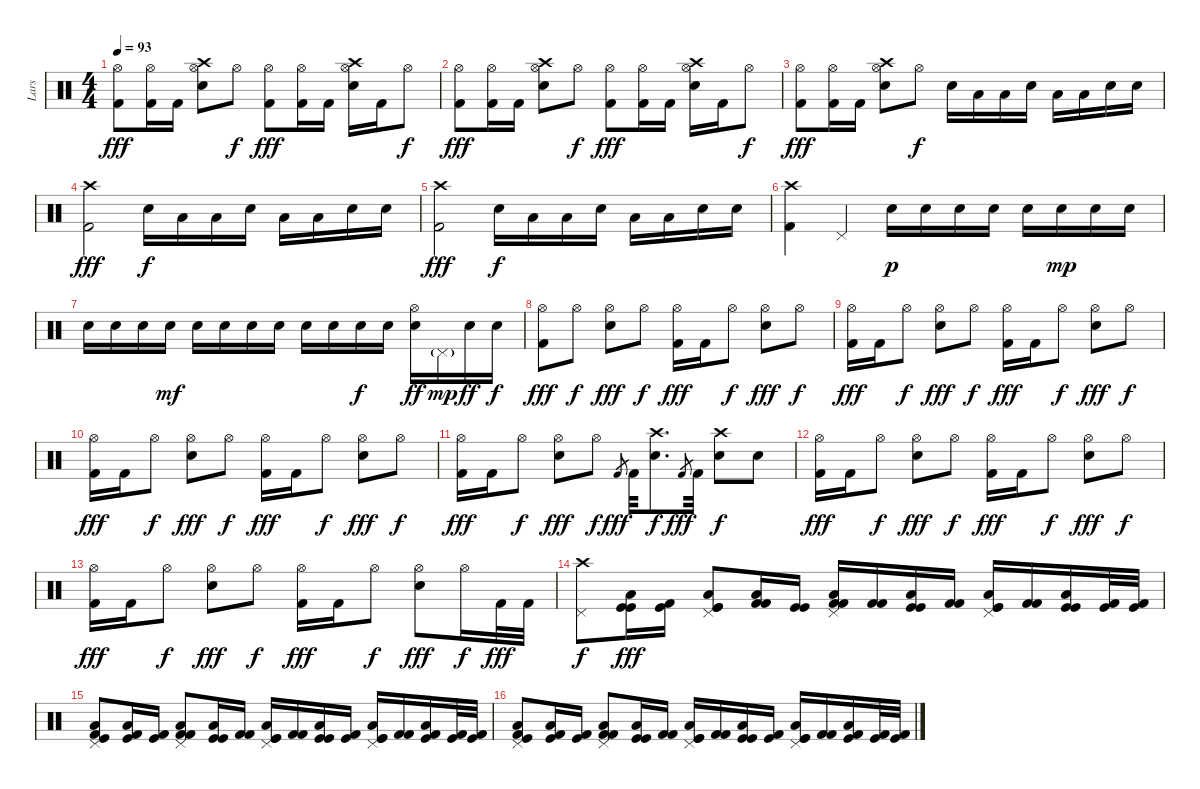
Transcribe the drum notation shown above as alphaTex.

\track ("Lars" "Lars") {instrument percussion}
\staff {score}
\articulation defaults
\ts (4 4)
\tempo 93
\clef neutral
\ks c
("Hi-Hat (open)" "Kick (hit) 2").8{dy fff} ("Hi-Hat (open)" "Kick (hit) 2").16 "Kick (hit) 2".16 ("Crash high (hit)" "Hi-Hat (open)" "Snare (hit) 2").8 "Hi-Hat (open)".8{dy f} ("Hi-Hat (open)" "Kick (hit) 2").8{dy fff} ("Hi-Hat (open)" "Kick (hit) 2").16 "Kick (hit) 2".16 ("Crash high (hit)" "Hi-Hat (open)" "Snare (hit) 2").16 "Kick (hit) 2".16 "Hi-Hat (open)".8{dy f} |
("Hi-Hat (open)" "Kick (hit) 2").8{dy fff} ("Hi-Hat (open)" "Kick (hit) 2").16 "Kick (hit) 2".16 ("Crash high (hit)" "Hi-Hat (open)" "Snare (hit) 2").8 "Hi-Hat (open)".8{dy f} ("Hi-Hat (open)" "Kick (hit) 2").8{dy fff} ("Hi-Hat (open)" "Kick (hit) 2").16 "Kick (hit) 2".16 ("Crash high (hit)" "Hi-Hat (open)" "Snare (hit) 2").16 "Kick (hit) 2".16 "Hi-Hat (open)".8{dy f} |
("Hi-Hat (open)" "Kick (hit) 2").8{dy fff} ("Hi-Hat (open)" "Kick (hit) 2").16 "Kick (hit) 2".16 ("Crash high (hit)" "Hi-Hat (open)" "Snare (hit) 2").8 "Hi-Hat (open)".8{dy f} "Snare (hit) 2".16 "Low Tom (hit)".16 "Low Floor Tom (hit)".16 "Snare (hit) 2".16 "Low Tom (hit)".16 "Low Floor Tom (hit)".16 "Snare (hit) 2".16 "Snare (hit) 2".16 |
("Crash high (hit)" "Kick (hit) 2").2{dy fff} "Snare (hit) 2".16{dy f} "Low Tom (hit)".16 "Low Floor Tom (hit)".16 "Snare (hit) 2".16 "Low Tom (hit)".16 "Low Floor Tom (hit)".16 "Snare (hit) 2".16 "Snare (hit) 2".16 |
("Crash high (hit)" "Kick (hit) 2").2{dy fff} "Snare (hit) 2".16{dy f} "Low Tom (hit)".16 "Low Floor Tom (hit)".16 "Snare (hit) 2".16 "Low Tom (hit)".16 "Low Floor Tom (hit)".16 "Snare (hit) 2".16 "Snare (hit) 2".16 |
("Crash high (hit)" "Kick (hit) 2").4 "Pedal Hi-Hat (hit)".4 "Snare (hit) 2".16{dy p} "Snare (hit) 2".16 "Snare (hit) 2".16 "Snare (hit) 2".16 "Snare (hit) 2".16 "Snare (hit) 2".16{dy mp} "Snare (hit) 2".16 "Snare (hit) 2".16 |
"Snare (hit) 2".16 "Snare (hit) 2".16 "Snare (hit) 2".16 "Snare (hit) 2".16{dy mf} "Snare (hit) 2".16 "Snare (hit) 2".16 "Snare (hit) 2".16 "Snare (hit) 2".16 "Snare (hit) 2".16 "Snare (hit) 2".16 "Snare (hit) 2".16{dy f} "Snare (hit) 2".16 ("Hi-Hat (open)" "Snare (hit) 2").16{dy ff} "Pedal Hi-Hat (hit)"{g}.16{dy mp} "Snare (hit) 2".16{dy ff} "Snare (hit) 2".16{dy f} |
("Hi-Hat (open)" "Kick (hit) 2").8{dy fff} "Hi-Hat (open)".8{dy f} ("Hi-Hat (open)" "Snare (hit) 2").8{dy fff} "Hi-Hat (open)".8{dy f} ("Hi-Hat (open)" "Kick (hit) 2").16{dy fff} "Kick (hit) 2".16 "Hi-Hat (open)".8{dy f} ("Hi-Hat (open)" "Snare (hit) 2").8{dy fff} "Hi-Hat (open)".8{dy f} |
("Hi-Hat (open)" "Kick (hit) 2").16{dy fff} "Kick (hit) 2".16 "Hi-Hat (open)".8{dy f} ("Hi-Hat (open)" "Snare (hit) 2").8{dy fff} "Hi-Hat (open)".8{dy f} ("Hi-Hat (open)" "Kick (hit) 2").16{dy fff} "Kick (hit) 2".16 "Hi-Hat (open)".8{dy f} ("Hi-Hat (open)" "Snare (hit) 2").8{dy fff} "Hi-Hat (open)".8{dy f} |
("Hi-Hat (open)" "Kick (hit) 2").16{dy fff} "Kick (hit) 2".16 "Hi-Hat (open)".8{dy f} ("Hi-Hat (open)" "Snare (hit) 2").8{dy fff} "Hi-Hat (open)".8{dy f} ("Hi-Hat (open)" "Kick (hit) 2").16{dy fff} "Kick (hit) 2".16 "Hi-Hat (open)".8{dy f} ("Hi-Hat (open)" "Snare (hit) 2").8{dy fff} "Hi-Hat (open)".8{dy f} |
("Hi-Hat (open)" "Kick (hit) 2").16{dy fff} "Kick (hit) 2".16 "Hi-Hat (open)".8{dy f} ("Hi-Hat (open)" "Snare (hit) 2").8{dy fff} "Hi-Hat (open)".8{dy f} "Kick (hit) 2".8{gr dy fff} "Kick (hit) 2".32 ("Crash high (hit)" "Snare (hit) 2").8{d dy f} "Kick (hit) 2".8{gr dy fff} "Kick (hit) 2".32 ("Crash high (hit)" "Snare (hit) 2").8{dy f} "Snare (hit) 2".8 |
("Hi-Hat (open)" "Kick (hit) 2").16{dy fff} "Kick (hit) 2".16 "Hi-Hat (open)".8{dy f} ("Hi-Hat (open)" "Snare (hit) 2").8{dy fff} "Hi-Hat (open)".8{dy f} ("Hi-Hat (open)" "Kick (hit) 2").16{dy fff} "Kick (hit) 2".16 "Hi-Hat (open)".8{dy f} ("Hi-Hat (open)" "Snare (hit) 2").8{dy fff} "Hi-Hat (open)".8{dy f} |
("Hi-Hat (open)" "Kick (hit) 2").16{dy fff} "Kick (hit) 2".16 "Hi-Hat (open)".8{dy f} ("Hi-Hat (open)" "Snare (hit) 2").8{dy fff} "Hi-Hat (open)".8{dy f} ("Hi-Hat (open)" "Kick (hit) 2").16{dy fff} "Kick (hit) 2".16 "Hi-Hat (open)".8{dy f} ("Hi-Hat (open)" "Snare (hit) 2").8{dy fff} "Hi-Hat (open)".16{dy f} "Kick (hit) 2".32{dy fff} "Kick (hit) 2".32 |
("Crash high (hit)" "Pedal Hi-Hat (hit)").8{dy f} ("Low Floor Tom (hit)" "Kick (hit)" "Kick (hit)").16{dy fff} ("Kick (hit)" "Kick (hit) 2").16 ("Pedal Hi-Hat (hit)" "Low Floor Tom (hit)" "Kick (hit)" "Kick (hit)").8 ("Low Floor Tom (hit)" "Kick (hit) 2" "Kick (hit) 2").16 ("Kick (hit)" "Kick (hit)").16 ("Pedal Hi-Hat (hit)" "Low Floor Tom (hit)" "Kick (hit) 2" "Kick (hit) 2").16 ("Kick (hit) 2" "Kick (hit) 2").16 ("Low Floor Tom (hit)" "Kick (hit)" "Kick (hit)").16 ("Kick (hit) 2" "Kick (hit) 2").16 ("Pedal Hi-Hat (hit)" "Low Floor Tom (hit)" "Kick (hit)" "Kick (hit)").16 ("Kick (hit) 2" "Kick (hit) 2").16 ("Low Floor Tom (hit)" "Kick (hit)" "Kick (hit)").16 ("Kick (hit)" "Kick (hit) 2").32 ("Kick (hit)" "Kick (hit) 2").32 |
("Pedal Hi-Hat (hit)" "Low Floor Tom (hit)" "Kick (hit)" "Kick (hit) 2").8 ("Low Floor Tom (hit)" "Kick (hit)" "Kick (hit) 2").16 ("Kick (hit)" "Kick (hit) 2").16 ("Pedal Hi-Hat (hit)" "Low Floor Tom (hit)" "Kick (hit) 2" "Kick (hit) 2").8 ("Low Floor Tom (hit)" "Kick (hit)" "Kick (hit)").16 ("Kick (hit) 2" "Kick (hit) 2").16 ("Pedal Hi-Hat (hit)" "Low Floor Tom (hit)" "Kick (hit)" "Kick (hit)").16 ("Kick (hit) 2" "Kick (hit) 2").16 ("Low Floor Tom (hit)" "Kick (hit)" "Kick (hit)").16 ("Kick (hit)" "Kick (hit) 2").16 ("Pedal Hi-Hat (hit)" "Low Floor Tom (hit)" "Kick (hit)" "Kick (hit)").16 ("Kick (hit) 2" "Kick (hit) 2").16 ("Low Floor Tom (hit)" "Kick (hit)" "Kick (hit) 2").16 ("Kick (hit)" "Kick (hit) 2").32 ("Kick (hit)" "Kick (hit) 2").32 |
("Pedal Hi-Hat (hit)" "Low Floor Tom (hit)" "Kick (hit)" "Kick (hit) 2").8 ("Low Floor Tom (hit)" "Kick (hit)" "Kick (hit) 2").16 ("Kick (hit)" "Kick (hit) 2").16 ("Pedal Hi-Hat (hit)" "Low Floor Tom (hit)" "Kick (hit) 2" "Kick (hit) 2").8 ("Low Floor Tom (hit)" "Kick (hit)" "Kick (hit)").16 ("Kick (hit) 2" "Kick (hit) 2").16 ("Pedal Hi-Hat (hit)" "Low Floor Tom (hit)" "Kick (hit)" "Kick (hit)").16 ("Kick (hit) 2" "Kick (hit) 2").16 ("Low Floor Tom (hit)" "Kick (hit)" "Kick (hit)").16 ("Kick (hit)" "Kick (hit) 2").16 ("Pedal Hi-Hat (hit)" "Low Floor Tom (hit)" "Kick (hit)" "Kick (hit)").16 ("Kick (hit) 2" "Kick (hit) 2").16 ("Low Floor Tom (hit)" "Kick (hit)" "Kick (hit) 2").16 ("Kick (hit)" "Kick (hit) 2").32 ("Kick (hit)" "Kick (hit) 2").32
